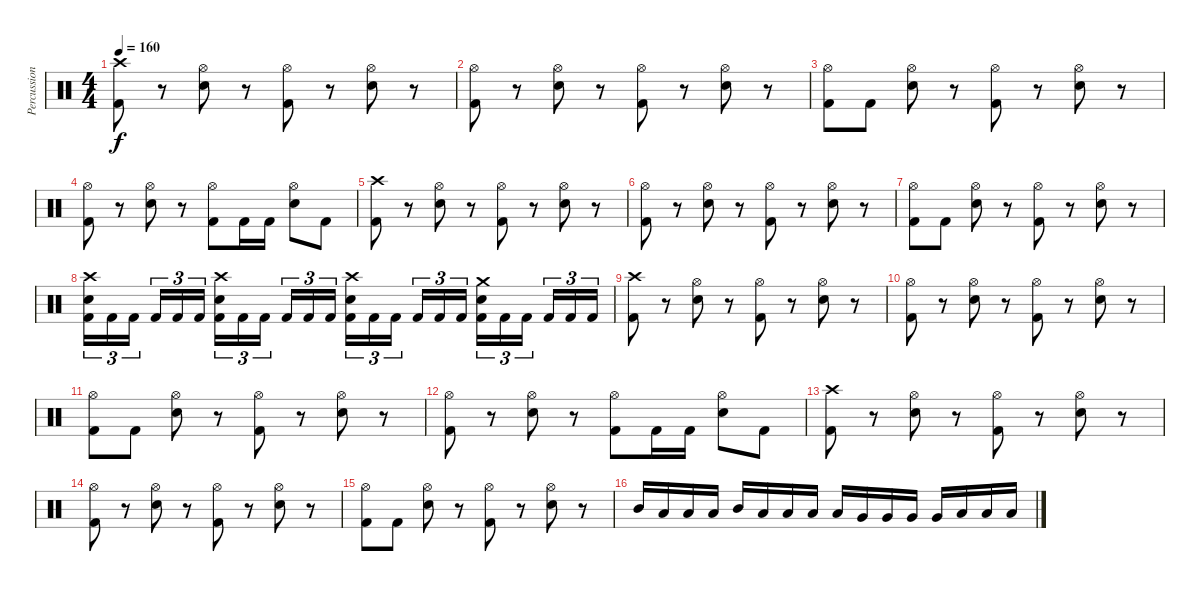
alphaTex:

\track ("Percussion" "Percussion") {instrument percussion}
\staff {score}
\articulation defaults
\ts (4 4)
\tempo 160
\clef neutral
\ks c
("Crash high (hit)" "Kick (hit) 2").8{dy f} r.8 ("Hi-Hat (open)" "Electric Snare (hit)").8 r.8 ("Hi-Hat (open)" "Kick (hit) 2").8 r.8 ("Hi-Hat (open)" "Electric Snare (hit)").8 r.8 |
("Hi-Hat (open)" "Kick (hit) 2").8 r.8 ("Hi-Hat (open)" "Electric Snare (hit)").8 r.8 ("Hi-Hat (open)" "Kick (hit) 2").8 r.8 ("Hi-Hat (open)" "Electric Snare (hit)").8 r.8 |
("Hi-Hat (open)" "Kick (hit) 2").8 "Kick (hit) 2".8 ("Hi-Hat (open)" "Electric Snare (hit)").8 r.8 ("Hi-Hat (open)" "Kick (hit) 2").8 r.8 ("Hi-Hat (open)" "Electric Snare (hit)").8 r.8 |
("Hi-Hat (open)" "Kick (hit) 2").8 r.8 ("Hi-Hat (open)" "Electric Snare (hit)").8 r.8 ("Hi-Hat (open)" "Kick (hit) 2").8 "Kick (hit) 2".16 "Kick (hit) 2".16 ("Hi-Hat (open)" "Electric Snare (hit)").8 "Kick (hit) 2".8 |
("Crash high (hit)" "Kick (hit) 2").8 r.8 ("Hi-Hat (open)" "Electric Snare (hit)").8 r.8 ("Hi-Hat (open)" "Kick (hit) 2").8 r.8 ("Hi-Hat (open)" "Electric Snare (hit)").8 r.8 |
("Hi-Hat (open)" "Kick (hit) 2").8 r.8 ("Hi-Hat (open)" "Electric Snare (hit)").8 r.8 ("Hi-Hat (open)" "Kick (hit) 2").8 r.8 ("Hi-Hat (open)" "Electric Snare (hit)").8 r.8 |
("Hi-Hat (open)" "Kick (hit) 2").8 "Kick (hit) 2".8 ("Hi-Hat (open)" "Electric Snare (hit)").8 r.8 ("Hi-Hat (open)" "Kick (hit) 2").8 r.8 ("Hi-Hat (open)" "Electric Snare (hit)").8 r.8 |
("Crash high (hit)" "Electric Snare (hit)" "Kick (hit) 2").16{tu (3 2)} "Kick (hit) 2".16{tu (3 2)} "Kick (hit) 2".16{tu (3 2) beam splitsecondary} "Kick (hit) 2".16{tu (3 2)} "Kick (hit) 2".16{tu (3 2)} "Kick (hit) 2".16{tu (3 2)} ("Crash high (hit)" "Electric Snare (hit)" "Kick (hit) 2").16{tu (3 2)} "Kick (hit) 2".16{tu (3 2)} "Kick (hit) 2".16{tu (3 2) beam splitsecondary} "Kick (hit) 2".16{tu (3 2)} "Kick (hit) 2".16{tu (3 2)} "Kick (hit) 2".16{tu (3 2)} ("Crash high (hit)" "Electric Snare (hit)" "Kick (hit) 2").16{tu (3 2)} "Kick (hit) 2".16{tu (3 2)} "Kick (hit) 2".16{tu (3 2) beam splitsecondary} "Kick (hit) 2".16{tu (3 2)} "Kick (hit) 2".16{tu (3 2)} "Kick (hit) 2".16{tu (3 2)} ("Crash medium (hit)" "Electric Snare (hit)" "Kick (hit) 2").16{tu (3 2)} "Kick (hit) 2".16{tu (3 2)} "Kick (hit) 2".16{tu (3 2) beam splitsecondary} "Kick (hit) 2".16{tu (3 2)} "Kick (hit) 2".16{tu (3 2)} "Kick (hit) 2".16{tu (3 2)} |
("Crash high (hit)" "Kick (hit) 2").8 r.8 ("Hi-Hat (open)" "Electric Snare (hit)").8 r.8 ("Hi-Hat (open)" "Kick (hit) 2").8 r.8 ("Hi-Hat (open)" "Electric Snare (hit)").8 r.8 |
("Hi-Hat (open)" "Kick (hit) 2").8 r.8 ("Hi-Hat (open)" "Electric Snare (hit)").8 r.8 ("Hi-Hat (open)" "Kick (hit) 2").8 r.8 ("Hi-Hat (open)" "Electric Snare (hit)").8 r.8 |
("Hi-Hat (open)" "Kick (hit) 2").8 "Kick (hit) 2".8 ("Hi-Hat (open)" "Electric Snare (hit)").8 r.8 ("Hi-Hat (open)" "Kick (hit) 2").8 r.8 ("Hi-Hat (open)" "Electric Snare (hit)").8 r.8 |
("Hi-Hat (open)" "Kick (hit) 2").8 r.8 ("Hi-Hat (open)" "Electric Snare (hit)").8 r.8 ("Hi-Hat (open)" "Kick (hit) 2").8 "Kick (hit) 2".16 "Kick (hit) 2".16 ("Hi-Hat (open)" "Electric Snare (hit)").8 "Kick (hit) 2".8 |
("Crash high (hit)" "Kick (hit) 2").8 r.8 ("Hi-Hat (open)" "Electric Snare (hit)").8 r.8 ("Hi-Hat (open)" "Kick (hit) 2").8 r.8 ("Hi-Hat (open)" "Electric Snare (hit)").8 r.8 |
("Hi-Hat (open)" "Kick (hit) 2").8 r.8 ("Hi-Hat (open)" "Electric Snare (hit)").8 r.8 ("Hi-Hat (open)" "Kick (hit) 2").8 r.8 ("Hi-Hat (open)" "Electric Snare (hit)").8 r.8 |
("Hi-Hat (open)" "Kick (hit) 2").8 "Kick (hit) 2".8 ("Hi-Hat (open)" "Electric Snare (hit)").8 r.8 ("Hi-Hat (open)" "Kick (hit) 2").8 r.8 ("Hi-Hat (open)" "Electric Snare (hit)").8 r.8 |
"Mid Tom (hit)".16 "Low Tom (hit)".16 "Low Tom (hit)".16 "Low Tom (hit)".16 "Mid Tom (hit)".16 "Low Tom (hit)".16 "Low Tom (hit)".16 "Low Tom (hit)".16 "Low Tom (hit)".16 "Very Low Tom (hit)".16 "Very Low Tom (hit)".16 "Very Low Tom (hit)".16 "Very Low Tom (hit)".16 "Low Floor Tom (hit)".16 "Low Floor Tom (hit)".16 "Low Floor Tom (hit)".16
